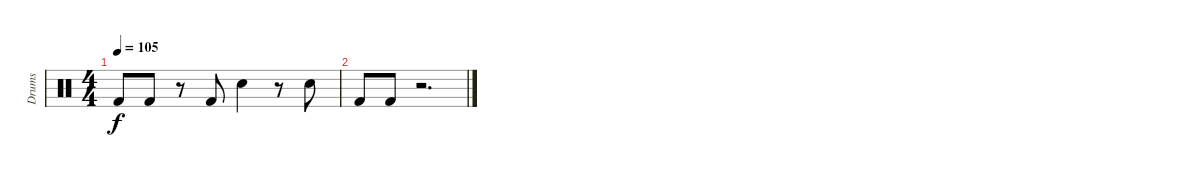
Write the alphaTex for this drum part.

\track ("Drums" "Drums") {instrument percussion}
\staff {score}
\articulation defaults
\ts (4 4)
\tempo 105
\clef neutral
\ks c "Kick (hit) 2".8{dy f} "Kick (hit) 2".8
r.8 "Kick (hit) 2".8 "Snare (hit) 2".4 r.8 "Snare (hit) 2".8 |
"Kick (hit) 2".8 "Kick (hit) 2".8 r.2{d}
